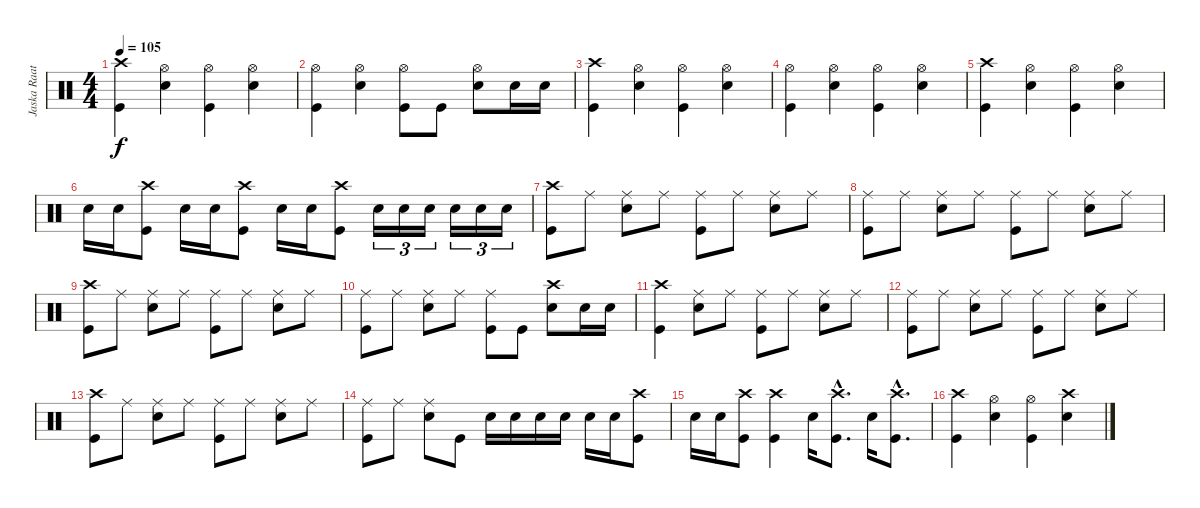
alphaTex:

\track ("Jaska Raatikainen" "Jaska Raat") {instrument percussion}
\staff {score}
\articulation defaults
\ts (4 4)
\tempo 105
\clef neutral
\ks c
("Crash high (hit)" "Kick (hit)").4{dy f} ("Hi-Hat (open)" "Snare (hit) 2").4 ("Hi-Hat (open)" "Kick (hit)").4 ("Hi-Hat (open)" "Snare (hit) 2").4 |
("Hi-Hat (open)" "Kick (hit)").4 ("Hi-Hat (open)" "Snare (hit) 2").4 ("Hi-Hat (open)" "Kick (hit)").8 "Kick (hit)".8 ("Hi-Hat (open)" "Snare (hit) 2").8 "Snare (hit) 2".16 "Snare (hit) 2".16 |
("Crash high (hit)" "Kick (hit)").4 ("Hi-Hat (open)" "Snare (hit) 2").4 ("Hi-Hat (open)" "Kick (hit)").4 ("Hi-Hat (open)" "Snare (hit) 2").4 |
("Hi-Hat (open)" "Kick (hit)").4 ("Hi-Hat (open)" "Snare (hit) 2").4 ("Hi-Hat (open)" "Kick (hit)").4 ("Hi-Hat (open)" "Snare (hit) 2").4 |
("Crash high (hit)" "Kick (hit)").4 ("Hi-Hat (open)" "Snare (hit) 2").4 ("Hi-Hat (open)" "Kick (hit)").4 ("Hi-Hat (open)" "Snare (hit) 2").4 |
"Snare (hit) 2".16 "Snare (hit) 2".16 ("Crash high (hit)" "Kick (hit)").8 "Snare (hit) 2".16 "Snare (hit) 2".16 ("Crash high (hit)" "Kick (hit)").8 "Snare (hit) 2".16 "Snare (hit) 2".16 ("Crash high (hit)" "Kick (hit)").8 "Snare (hit) 2".16{tu (3 2)} "Snare (hit) 2".16{tu (3 2)} "Snare (hit) 2".16{tu (3 2)} "Snare (hit) 2".16{tu (3 2)} "Snare (hit) 2".16{tu (3 2)} "Snare (hit) 2".16{tu (3 2)} |
("Crash high (hit)" "Kick (hit)").8 "Ride (middle)".8 ("Ride (middle)" "Snare (hit) 2").8 "Ride (middle)".8 ("Ride (middle)" "Kick (hit)").8 "Ride (middle)".8 ("Ride (middle)" "Snare (hit) 2").8 "Ride (middle)".8 |
("Ride (middle)" "Kick (hit)").8 "Ride (middle)".8 ("Ride (middle)" "Snare (hit) 2").8 "Ride (middle)".8 ("Ride (middle)" "Kick (hit)").8 "Ride (middle)".8 ("Ride (middle)" "Snare (hit) 2").8 "Ride (middle)".8 |
("Crash high (hit)" "Kick (hit)").8 "Ride (middle)".8 ("Ride (middle)" "Snare (hit) 2").8 "Ride (middle)".8 ("Ride (middle)" "Kick (hit)").8 "Ride (middle)".8 ("Ride (middle)" "Snare (hit) 2").8 "Ride (middle)".8 |
("Ride (middle)" "Kick (hit)").8 "Ride (middle)".8 ("Ride (middle)" "Snare (hit) 2").8 "Ride (middle)".8 ("Ride (middle)" "Kick (hit)").8 "Kick (hit)".8 ("Crash high (hit)" "Snare (hit) 2").8 "Snare (hit) 2".16 "Snare (hit) 2".16 |
("Crash high (hit)" "Kick (hit)").4 ("Ride (middle)" "Snare (hit) 2").8 "Ride (middle)".8 ("Ride (middle)" "Kick (hit)").8 "Ride (middle)".8 ("Ride (middle)" "Snare (hit) 2").8 "Ride (middle)".8 |
("Ride (middle)" "Kick (hit)").8 "Ride (middle)".8 ("Ride (middle)" "Snare (hit) 2").8 "Ride (middle)".8 ("Ride (middle)" "Kick (hit)").8 "Ride (middle)".8 ("Ride (middle)" "Snare (hit) 2").8 "Ride (middle)".8 |
("Crash high (hit)" "Kick (hit)").8 "Ride (middle)".8 ("Ride (middle)" "Snare (hit) 2").8 "Ride (middle)".8 ("Ride (middle)" "Kick (hit)").8 "Ride (middle)".8 ("Ride (middle)" "Snare (hit) 2").8 "Ride (middle)".8 |
("Ride (middle)" "Kick (hit)").8 "Ride (middle)".8 ("Ride (middle)" "Snare (hit) 2").8 "Kick (hit)".8 "Snare (hit) 2".16 "Snare (hit) 2".16 "Snare (hit) 2".16 "Snare (hit) 2".16 "Snare (hit) 2".16 "Snare (hit) 2".16 ("Crash high (hit)" "Kick (hit)").8 |
"Snare (hit) 2".16 "Snare (hit) 2".16 ("Crash high (hit)" "Kick (hit)").8 ("Crash high (hit)" "Kick (hit)").4 "Snare (hit) 2".16 ("Crash high (hit)"{hac} "Kick (hit)"{hac}).8{d} "Snare (hit) 2".16 ("Crash high (hit)"{hac} "Kick (hit)"{hac}).8{d} |
("Crash high (hit)" "Kick (hit)").4 ("Hi-Hat (open)" "Snare (hit) 2").4 ("Hi-Hat (open)" "Kick (hit)").4 ("Crash high (hit)" "Snare (hit) 2").4
